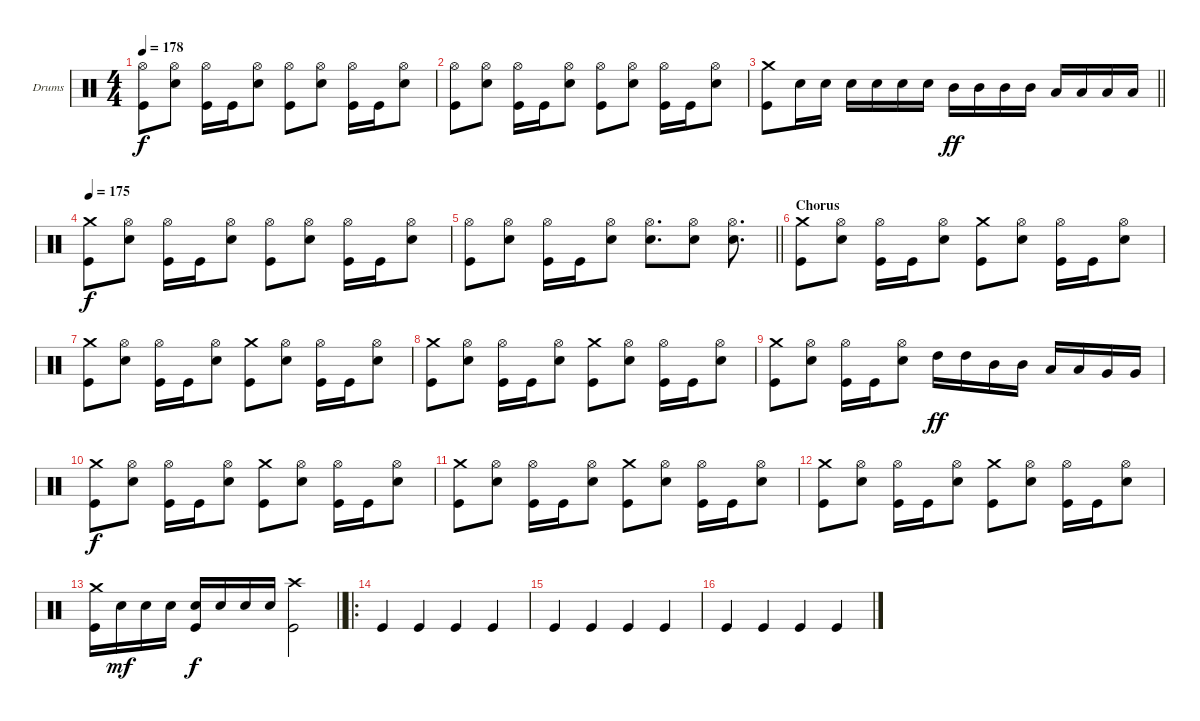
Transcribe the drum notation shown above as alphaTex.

\bracketExtendMode groupsimilarinstruments
\firstSystemTrackNameOrientation horizontal
\otherSystemsTrackNameOrientation horizontal
\track ("Drums" "Drums") {instrument percussion}
\staff {score}
\articulation defaults
\ts (4 4)
\tempo 178
\clef neutral
\ks c
("Hi-Hat (open)" "Kick (hit)").8{dy f} ("Hi-Hat (open)" "Snare (hit) 2").8 ("Hi-Hat (open)" "Kick (hit)").16 "Kick (hit)".16 ("Hi-Hat (open)" "Snare (hit) 2").8 ("Hi-Hat (open)" "Kick (hit)").8 ("Hi-Hat (open)" "Snare (hit) 2").8 ("Hi-Hat (open)" "Kick (hit)").16 "Kick (hit)".16 ("Hi-Hat (open)" "Snare (hit) 2").8 |
("Hi-Hat (open)" "Kick (hit)").8 ("Hi-Hat (open)" "Snare (hit) 2").8 ("Hi-Hat (open)" "Kick (hit)").16 "Kick (hit)".16 ("Hi-Hat (open)" "Snare (hit) 2").8 ("Hi-Hat (open)" "Kick (hit)").8 ("Hi-Hat (open)" "Snare (hit) 2").8 ("Hi-Hat (open)" "Kick (hit)").16 "Kick (hit)".16 ("Hi-Hat (open)" "Snare (hit) 2").8 |
\barLineRight lightlight
("Kick (hit)" "Crash medium (hit)").8 "Snare (hit) 2".16 "Snare (hit) 2".16 "Snare (hit) 2".16 "Snare (hit) 2".16 "Snare (hit) 2".16 "Snare (hit) 2".16 "Mid Tom (hit)".16{dy ff} "Mid Tom (hit)".16 "Mid Tom (hit)".16 "Mid Tom (hit)".16 "Low Tom (hit)".16 "Low Tom (hit)".16 "Low Tom (hit)".16 "Low Tom (hit)".16 |
\tempo 175
("Crash medium (hit)" "Kick (hit)").8{dy f} ("Hi-Hat (open)" "Snare (hit) 2").8 ("Hi-Hat (open)" "Kick (hit)").16 "Kick (hit)".16 ("Hi-Hat (open)" "Snare (hit) 2").8 ("Hi-Hat (open)" "Kick (hit)").8 ("Hi-Hat (open)" "Snare (hit) 2").8 ("Hi-Hat (open)" "Kick (hit)").16 "Kick (hit)".16 ("Hi-Hat (open)" "Snare (hit) 2").8 |
\barLineRight lightlight
("Hi-Hat (open)" "Kick (hit)").8 ("Hi-Hat (open)" "Snare (hit) 2").8 ("Hi-Hat (open)" "Kick (hit)").16 "Kick (hit)".16 ("Hi-Hat (open)" "Snare (hit) 2").8 ("Snare (hit) 2" "Hi-Hat (open)").8{d} ("Hi-Hat (open)" "Snare (hit) 2").8 ("Hi-Hat (open)" "Snare (hit) 2").8{d} |
\section ("" "Chorus")
("Crash medium (hit)" "Kick (hit)").8 ("Hi-Hat (open)" "Snare (hit) 2").8 ("Hi-Hat (open)" "Kick (hit)").16 "Kick (hit)".16 ("Hi-Hat (open)" "Snare (hit) 2").8 ("Kick (hit)" "Crash medium (hit)").8 ("Hi-Hat (open)" "Snare (hit) 2").8 ("Hi-Hat (open)" "Kick (hit)").16 "Kick (hit)".16 ("Hi-Hat (open)" "Snare (hit) 2").8 |
("Crash medium (hit)" "Kick (hit)").8 ("Hi-Hat (open)" "Snare (hit) 2").8 ("Hi-Hat (open)" "Kick (hit)").16 "Kick (hit)".16 ("Hi-Hat (open)" "Snare (hit) 2").8 ("Kick (hit)" "Crash medium (hit)").8 ("Hi-Hat (open)" "Snare (hit) 2").8 ("Hi-Hat (open)" "Kick (hit)").16 "Kick (hit)".16 ("Hi-Hat (open)" "Snare (hit) 2").8 |
("Crash medium (hit)" "Kick (hit)").8 ("Hi-Hat (open)" "Snare (hit) 2").8 ("Hi-Hat (open)" "Kick (hit)").16 "Kick (hit)".16 ("Hi-Hat (open)" "Snare (hit) 2").8 ("Kick (hit)" "Crash medium (hit)").8 ("Hi-Hat (open)" "Snare (hit) 2").8 ("Hi-Hat (open)" "Kick (hit)").16 "Kick (hit)".16 ("Hi-Hat (open)" "Snare (hit) 2").8 |
("Crash medium (hit)" "Kick (hit)").8 ("Hi-Hat (open)" "Snare (hit) 2").8 ("Hi-Hat (open)" "Kick (hit)").16 "Kick (hit)".16 ("Hi-Hat (open)" "Snare (hit) 2").8 "High Tom (hit)".16{dy ff} "High Tom (hit)".16 "Mid Tom (hit)".16 "Mid Tom (hit)".16 "Low Tom (hit)".16 "Low Tom (hit)".16 "Very Low Tom (hit)".16 "Very Low Tom (hit)".16 |
("Crash medium (hit)" "Kick (hit)").8{dy f} ("Hi-Hat (open)" "Snare (hit) 2").8 ("Hi-Hat (open)" "Kick (hit)").16 "Kick (hit)".16 ("Hi-Hat (open)" "Snare (hit) 2").8 ("Kick (hit)" "Crash medium (hit)").8 ("Hi-Hat (open)" "Snare (hit) 2").8 ("Hi-Hat (open)" "Kick (hit)").16 "Kick (hit)".16 ("Hi-Hat (open)" "Snare (hit) 2").8 |
("Crash medium (hit)" "Kick (hit)").8 ("Hi-Hat (open)" "Snare (hit) 2").8 ("Hi-Hat (open)" "Kick (hit)").16 "Kick (hit)".16 ("Hi-Hat (open)" "Snare (hit) 2").8 ("Kick (hit)" "Crash medium (hit)").8 ("Hi-Hat (open)" "Snare (hit) 2").8 ("Hi-Hat (open)" "Kick (hit)").16 "Kick (hit)".16 ("Hi-Hat (open)" "Snare (hit) 2").8 |
("Crash medium (hit)" "Kick (hit)").8 ("Hi-Hat (open)" "Snare (hit) 2").8 ("Hi-Hat (open)" "Kick (hit)").16 "Kick (hit)".16 ("Hi-Hat (open)" "Snare (hit) 2").8 ("Kick (hit)" "Crash medium (hit)").8 ("Hi-Hat (open)" "Snare (hit) 2").8 ("Hi-Hat (open)" "Kick (hit)").16 "Kick (hit)".16 ("Hi-Hat (open)" "Snare (hit) 2").8 |
\barLineRight lightlight
("Crash medium (hit)" "Kick (hit)").16 "Snare (hit) 2".16{dy mf} "Snare (hit) 2".16 "Snare (hit) 2".16 ("Snare (hit) 2" "Kick (hit)").16{dy f} "Snare (hit) 2".16 "Snare (hit) 2".16 "Snare (hit) 2".16 ("Kick (hit)" "Crash high (hit)").2 |
\ro "Kick (hit)".4 "Kick (hit)".4 "Kick (hit)".4 "Kick (hit)".4
|
"Kick (hit)".4 "Kick (hit)".4 "Kick (hit)".4 "Kick (hit)".4 |
"Kick (hit)".4 "Kick (hit)".4 "Kick (hit)".4 "Kick (hit)".4
